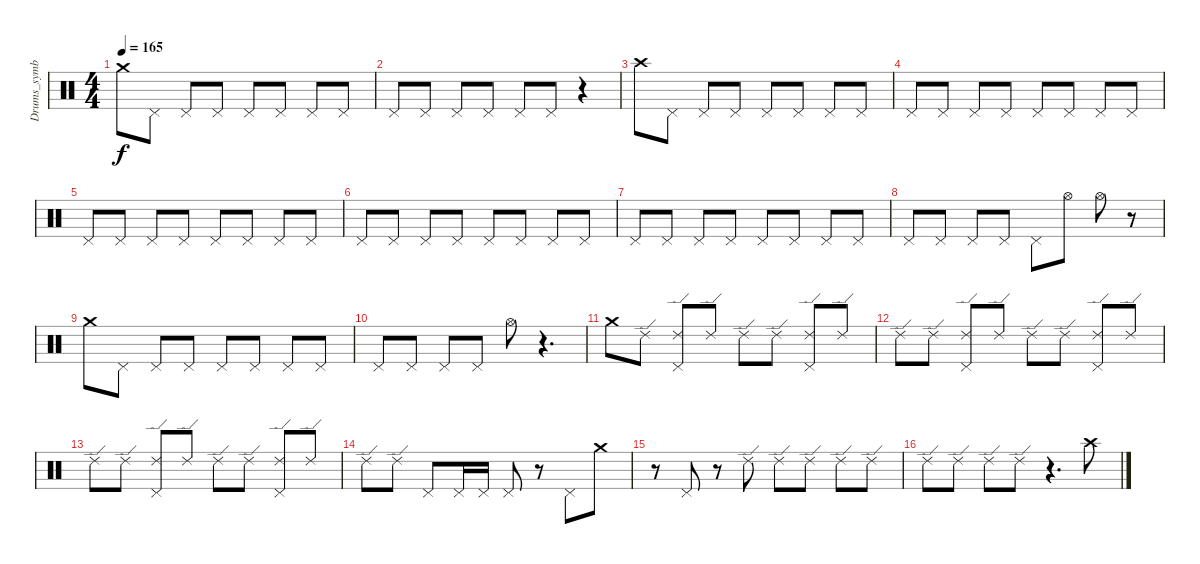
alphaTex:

\track ("Drums_symbal" "Drums_symb") {instrument percussion}
\staff {score}
\articulation defaults
\ts (4 4)
\tempo 165
\clef neutral
\ks c "Crash medium (hit)".8{dy f} "Pedal Hi-Hat (hit)".8 "Pedal Hi-Hat (hit)".8 "Pedal Hi-Hat (hit)".8 "Pedal Hi-Hat (hit)".8 "Pedal Hi-Hat (hit)".8 "Pedal Hi-Hat (hit)".8 "Pedal Hi-Hat (hit)".8
|
"Pedal Hi-Hat (hit)".8 "Pedal Hi-Hat (hit)".8 "Pedal Hi-Hat (hit)".8 "Pedal Hi-Hat (hit)".8 "Pedal Hi-Hat (hit)".8 "Pedal Hi-Hat (hit)".8 r.4 |
"Crash high (hit)".8 "Pedal Hi-Hat (hit)".8 "Pedal Hi-Hat (hit)".8 "Pedal Hi-Hat (hit)".8 "Pedal Hi-Hat (hit)".8 "Pedal Hi-Hat (hit)".8 "Pedal Hi-Hat (hit)".8 "Pedal Hi-Hat (hit)".8 |
"Pedal Hi-Hat (hit)".8 "Pedal Hi-Hat (hit)".8 "Pedal Hi-Hat (hit)".8 "Pedal Hi-Hat (hit)".8 "Pedal Hi-Hat (hit)".8 "Pedal Hi-Hat (hit)".8 "Pedal Hi-Hat (hit)".8 "Pedal Hi-Hat (hit)".8 |
"Pedal Hi-Hat (hit)".8 "Pedal Hi-Hat (hit)".8 "Pedal Hi-Hat (hit)".8 "Pedal Hi-Hat (hit)".8 "Pedal Hi-Hat (hit)".8 "Pedal Hi-Hat (hit)".8 "Pedal Hi-Hat (hit)".8 "Pedal Hi-Hat (hit)".8 |
"Pedal Hi-Hat (hit)".8 "Pedal Hi-Hat (hit)".8 "Pedal Hi-Hat (hit)".8 "Pedal Hi-Hat (hit)".8 "Pedal Hi-Hat (hit)".8 "Pedal Hi-Hat (hit)".8 "Pedal Hi-Hat (hit)".8 "Pedal Hi-Hat (hit)".8 |
"Pedal Hi-Hat (hit)".8 "Pedal Hi-Hat (hit)".8 "Pedal Hi-Hat (hit)".8 "Pedal Hi-Hat (hit)".8 "Pedal Hi-Hat (hit)".8 "Pedal Hi-Hat (hit)".8 "Pedal Hi-Hat (hit)".8 "Pedal Hi-Hat (hit)".8 |
"Pedal Hi-Hat (hit)".8 "Pedal Hi-Hat (hit)".8 "Pedal Hi-Hat (hit)".8 "Pedal Hi-Hat (hit)".8 "Pedal Hi-Hat (hit)".8 "Hi-Hat (open)".8 "Hi-Hat (open)".8 r.8 |
"Crash medium (hit)".8 "Pedal Hi-Hat (hit)".8 "Pedal Hi-Hat (hit)".8 "Pedal Hi-Hat (hit)".8 "Pedal Hi-Hat (hit)".8 "Pedal Hi-Hat (hit)".8 "Pedal Hi-Hat (hit)".8 "Pedal Hi-Hat (hit)".8 |
"Pedal Hi-Hat (hit)".8 "Pedal Hi-Hat (hit)".8 "Pedal Hi-Hat (hit)".8 "Pedal Hi-Hat (hit)".8 "Hi-Hat (open)".8 r.4{d} |
"Crash medium (hit)".8 "Ride (edge) 2".8 ("Ride (edge) 2" "Pedal Hi-Hat (hit)").8 "Ride (edge) 2".8 "Ride (edge) 2".8 "Ride (edge) 2".8 ("Ride (edge) 2" "Pedal Hi-Hat (hit)").8 "Ride (edge) 2".8 |
"Ride (edge) 2".8 "Ride (edge) 2".8 ("Ride (edge) 2" "Pedal Hi-Hat (hit)").8 "Ride (edge) 2".8 "Ride (edge) 2".8 "Ride (edge) 2".8 ("Ride (edge) 2" "Pedal Hi-Hat (hit)").8 "Ride (edge) 2".8 |
"Ride (edge) 2".8 "Ride (edge) 2".8 ("Ride (edge) 2" "Pedal Hi-Hat (hit)").8 "Ride (edge) 2".8 "Ride (edge) 2".8 "Ride (edge) 2".8 ("Ride (edge) 2" "Pedal Hi-Hat (hit)").8 "Ride (edge) 2".8 |
"Ride (edge) 2".8 "Ride (edge) 2".8 "Pedal Hi-Hat (hit)".8 "Pedal Hi-Hat (hit)".16 "Pedal Hi-Hat (hit)".16 "Pedal Hi-Hat (hit)".8 r.8 "Pedal Hi-Hat (hit)".8 "Crash medium (hit)".8 |
r.8 "Pedal Hi-Hat (hit)".8 r.8 "Ride (edge) 2".8 "Ride (edge) 2".8 "Ride (edge) 2".8 "Ride (edge) 2".8 "Ride (edge) 2".8 |
"Ride (edge) 2".8 "Ride (edge) 2".8 "Ride (edge) 2".8 "Ride (edge) 2".8 r.4{d} "Crash high (hit)".8
